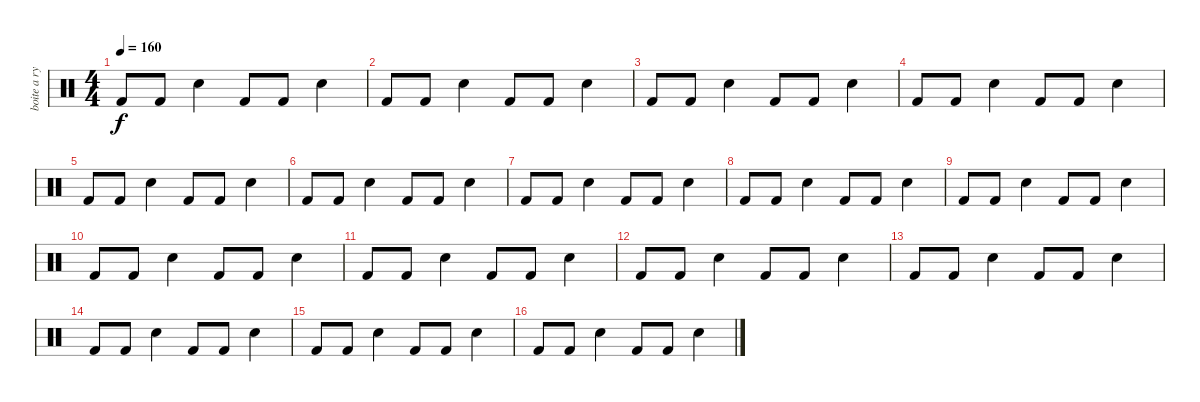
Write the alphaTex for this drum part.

\track ("boite a rythme" "boite a ry") {instrument percussion}
\staff {score}
\articulation defaults
\ts (4 4)
\tempo 160
\clef neutral
\ks c "Kick (hit) 2".8{dy f} "Kick (hit) 2".8 "Snare (hit) 2".4 "Kick (hit) 2".8 "Kick (hit) 2".8 "Snare (hit) 2".4
|
"Kick (hit) 2".8 "Kick (hit) 2".8 "Snare (hit) 2".4 "Kick (hit) 2".8 "Kick (hit) 2".8 "Snare (hit) 2".4 |
"Kick (hit) 2".8 "Kick (hit) 2".8 "Snare (hit) 2".4 "Kick (hit) 2".8 "Kick (hit) 2".8 "Snare (hit) 2".4 |
"Kick (hit) 2".8 "Kick (hit) 2".8 "Snare (hit) 2".4 "Kick (hit) 2".8 "Kick (hit) 2".8 "Snare (hit) 2".4 |
"Kick (hit) 2".8 "Kick (hit) 2".8 "Snare (hit) 2".4 "Kick (hit) 2".8 "Kick (hit) 2".8 "Snare (hit) 2".4 |
"Kick (hit) 2".8 "Kick (hit) 2".8 "Snare (hit) 2".4 "Kick (hit) 2".8 "Kick (hit) 2".8 "Snare (hit) 2".4 |
"Kick (hit) 2".8 "Kick (hit) 2".8 "Snare (hit) 2".4 "Kick (hit) 2".8 "Kick (hit) 2".8 "Snare (hit) 2".4 |
"Kick (hit) 2".8 "Kick (hit) 2".8 "Snare (hit) 2".4 "Kick (hit) 2".8 "Kick (hit) 2".8 "Snare (hit) 2".4 |
"Kick (hit) 2".8 "Kick (hit) 2".8 "Electric Snare (hit)".4 "Kick (hit) 2".8 "Kick (hit) 2".8 "Electric Snare (hit)".4 |
"Kick (hit) 2".8 "Kick (hit) 2".8 "Electric Snare (hit)".4 "Kick (hit) 2".8 "Kick (hit) 2".8 "Electric Snare (hit)".4 |
"Kick (hit) 2".8 "Kick (hit) 2".8 "Electric Snare (hit)".4 "Kick (hit) 2".8 "Kick (hit) 2".8 "Electric Snare (hit)".4 |
"Kick (hit) 2".8 "Kick (hit) 2".8 "Electric Snare (hit)".4 "Kick (hit) 2".8 "Kick (hit) 2".8 "Electric Snare (hit)".4 |
"Kick (hit) 2".8 "Kick (hit) 2".8 "Electric Snare (hit)".4 "Kick (hit) 2".8 "Kick (hit) 2".8 "Electric Snare (hit)".4 |
"Kick (hit) 2".8 "Kick (hit) 2".8 "Electric Snare (hit)".4 "Kick (hit) 2".8 "Kick (hit) 2".8 "Electric Snare (hit)".4 |
"Kick (hit) 2".8 "Kick (hit) 2".8 "Electric Snare (hit)".4 "Kick (hit) 2".8 "Kick (hit) 2".8 "Electric Snare (hit)".4 |
"Kick (hit) 2".8 "Kick (hit) 2".8 "Electric Snare (hit)".4 "Kick (hit) 2".8 "Kick (hit) 2".8 "Electric Snare (hit)".4
